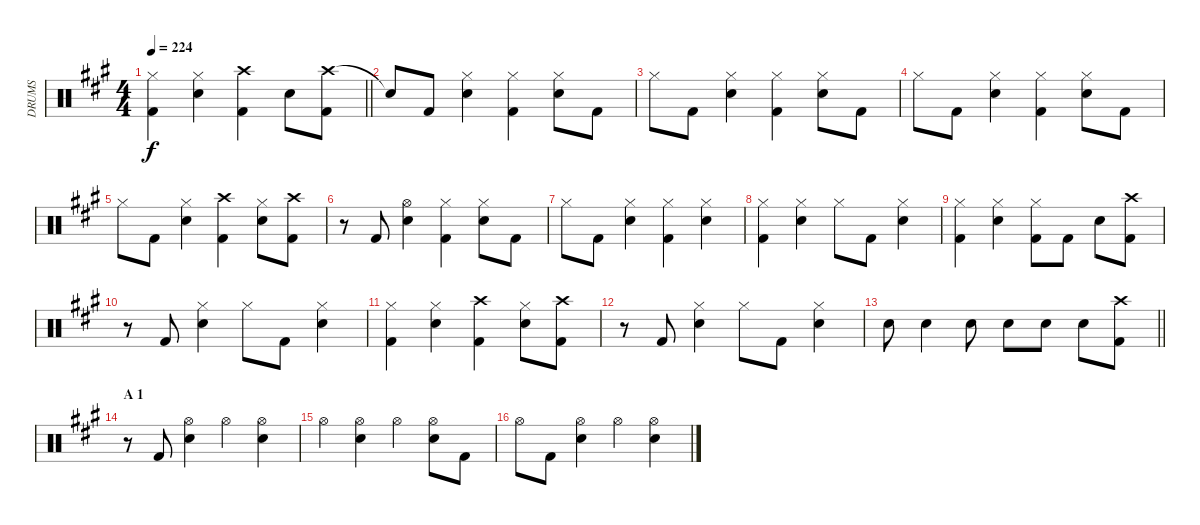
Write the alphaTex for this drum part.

\track ("DRUMS" "DRUMS") {instrument percussion}
\staff {score}
\articulation defaults
\ts (4 4)
\tempo 224
\clef neutral
\barLineRight lightlight
\ks a
("Hi-Hat (closed)" "Kick (hit) 2").4{dy f} ("Hi-Hat (closed)" "Snare (hit) 2").4 ("Crash high (hit)" "Kick (hit) 2").4 "Snare (hit) 2".8 ("Crash high (hit)" "Kick (hit) 2").8 |
"Snare (hit)"{t}.8 "Kick (hit) 2".8 ("Hi-Hat (closed)" "Snare (hit) 2").4 ("Hi-Hat (closed)" "Kick (hit) 2").4 ("Hi-Hat (closed)" "Snare (hit) 2").8 "Kick (hit) 2".8 |
"Hi-Hat (closed)".8 "Kick (hit) 2".8 ("Hi-Hat (closed)" "Snare (hit) 2").4 ("Hi-Hat (closed)" "Kick (hit) 2").4 ("Hi-Hat (closed)" "Snare (hit) 2").8 "Kick (hit) 2".8 |
"Hi-Hat (closed)".8 "Kick (hit) 2".8 ("Hi-Hat (closed)" "Snare (hit) 2").4 ("Hi-Hat (closed)" "Kick (hit) 2").4 ("Hi-Hat (closed)" "Snare (hit) 2").8 "Kick (hit) 2".8 |
"Hi-Hat (closed)".8 "Kick (hit) 2".8 ("Hi-Hat (closed)" "Snare (hit) 2").4 ("Crash high (hit)" "Kick (hit) 2").4 ("Hi-Hat (closed)" "Snare (hit) 2").8 ("Crash high (hit)" "Kick (hit) 2").8 |
r.8 "Kick (hit) 2".8 ("Hi-Hat (open)" "Snare (hit) 2").4 ("Hi-Hat (closed)" "Kick (hit) 2").4 ("Hi-Hat (closed)" "Snare (hit) 2").8 "Kick (hit) 2".8 |
"Hi-Hat (closed)".8 "Kick (hit) 2".8 ("Hi-Hat (closed)" "Snare (hit) 2").4 ("Hi-Hat (closed)" "Kick (hit) 2").4 ("Hi-Hat (closed)" "Snare (hit) 2").4 |
("Hi-Hat (closed)" "Kick (hit) 2").4 ("Hi-Hat (closed)" "Snare (hit) 2").4 "Hi-Hat (closed)".8 "Kick (hit) 2".8 ("Hi-Hat (closed)" "Snare (hit) 2").4 |
("Hi-Hat (closed)" "Kick (hit) 2").4 ("Hi-Hat (closed)" "Snare (hit) 2").4 ("Hi-Hat (closed)" "Kick (hit) 2").8 "Kick (hit) 2".8 "Snare (hit) 2".8 ("Crash high (hit)" "Kick (hit) 2").8 |
r.8 "Kick (hit) 2".8 ("Hi-Hat (closed)" "Snare (hit) 2").4 "Hi-Hat (closed)".8 "Kick (hit) 2".8 ("Hi-Hat (closed)" "Snare (hit) 2").4 |
("Hi-Hat (closed)" "Kick (hit) 2").4 ("Hi-Hat (closed)" "Snare (hit) 2").4 ("Crash high (hit)" "Kick (hit) 2").4 ("Hi-Hat (closed)" "Snare (hit) 2").8 ("Crash high (hit)" "Kick (hit) 2").8 |
r.8 "Kick (hit) 2".8 ("Hi-Hat (closed)" "Snare (hit) 2").4 "Hi-Hat (closed)".8 "Kick (hit) 2".8 ("Hi-Hat (closed)" "Snare (hit) 2").4 |
\barLineRight lightlight "Snare (hit) 2".8 "Snare (hit) 2".4 "Snare (hit) 2".8 "Snare (hit) 2".8 "Snare (hit) 2".8 "Snare (hit) 2".8
("Crash high (hit)" "Kick (hit) 2").8 |
\section ("" "A 1")
r.8 "Kick (hit) 2".8 ("Hi-Hat (open)" "Snare (hit) 2").4 "Hi-Hat (open)".4 ("Hi-Hat (open)" "Snare (hit) 2").4 |
"Hi-Hat (open)".4 ("Hi-Hat (open)" "Snare (hit) 2").4 "Hi-Hat (open)".4 ("Hi-Hat (open)" "Snare (hit) 2").8 "Kick (hit) 2".8 |
"Hi-Hat (open)".8 "Kick (hit) 2".8 ("Hi-Hat (open)" "Snare (hit) 2").4 "Hi-Hat (open)".4 ("Hi-Hat (open)" "Snare (hit) 2").4
